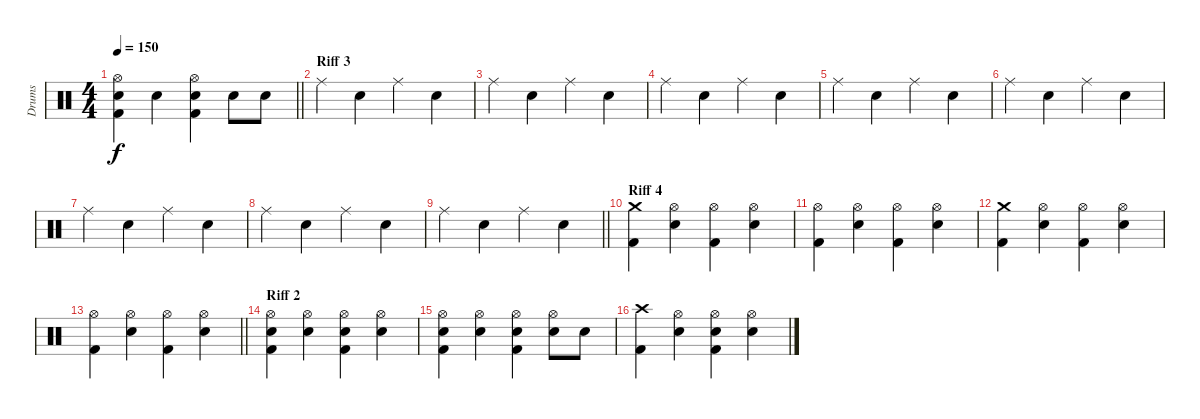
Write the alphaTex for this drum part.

\track ("Drums" "Drums") {instrument percussion}
\staff
\articulation defaults
\ts (4 4)
\tempo 150
\clef neutral
\barLineRight lightlight
\ks c
("Hi-Hat (open)" "Snare (hit) 2" "Kick (hit) 2").4{dy f} "Snare (hit) 2".4 ("Hi-Hat (open)" "Snare (hit) 2" "Kick (hit) 2").4 "Snare (hit) 2".8 "Snare (hit) 2".8 |
\section ("" "Riff 3")
"Ride (middle)".4 "Snare (hit) 2".4 "Ride (middle)".4 "Snare (hit) 2".4 |
"Ride (middle)".4 "Snare (hit) 2".4 "Ride (middle)".4 "Snare (hit) 2".4 |
"Ride (middle)".4 "Snare (hit) 2".4 "Ride (middle)".4 "Snare (hit) 2".4 |
"Ride (middle)".4 "Snare (hit) 2".4 "Ride (middle)".4 "Snare (hit) 2".4 |
"Ride (middle)".4 "Snare (hit) 2".4 "Ride (middle)".4 "Snare (hit) 2".4 |
"Ride (middle)".4 "Snare (hit) 2".4 "Ride (middle)".4 "Snare (hit) 2".4 |
"Ride (middle)".4 "Snare (hit) 2".4 "Ride (middle)".4 "Snare (hit) 2".4 |
\barLineRight lightlight "Ride (middle)".4 "Snare (hit) 2".4 "Ride (middle)".4 "Snare (hit) 2".4
|
\section ("" "Riff 4")
("Crash medium (hit)" "Kick (hit) 2").4 ("Hi-Hat (open)" "Snare (hit) 2").4 ("Hi-Hat (open)" "Kick (hit) 2").4 ("Hi-Hat (open)" "Snare (hit) 2").4 |
("Hi-Hat (open)" "Kick (hit) 2").4 ("Hi-Hat (open)" "Snare (hit) 2").4 ("Hi-Hat (open)" "Kick (hit) 2").4 ("Hi-Hat (open)" "Snare (hit) 2").4 |
("Crash medium (hit)" "Kick (hit) 2").4 ("Hi-Hat (open)" "Snare (hit) 2").4 ("Hi-Hat (open)" "Kick (hit) 2").4 ("Hi-Hat (open)" "Snare (hit) 2").4 |
\barLineRight lightlight
("Hi-Hat (open)" "Kick (hit) 2").4 ("Hi-Hat (open)" "Snare (hit) 2").4 ("Hi-Hat (open)" "Kick (hit) 2").4 ("Hi-Hat (open)" "Snare (hit) 2").4 |
\section ("" "Riff 2")
("Hi-Hat (open)" "Snare (hit) 2" "Kick (hit) 2").4 ("Hi-Hat (open)" "Snare (hit) 2").4 ("Hi-Hat (open)" "Snare (hit) 2" "Kick (hit) 2").4 ("Hi-Hat (open)" "Snare (hit) 2").4 |
("Hi-Hat (open)" "Snare (hit) 2" "Kick (hit) 2").4 ("Hi-Hat (open)" "Snare (hit) 2").4 ("Hi-Hat (open)" "Snare (hit) 2" "Kick (hit) 2").4 ("Hi-Hat (open)" "Snare (hit) 2").8 "Snare (hit) 2".8 |
("Crash high (hit)" "Kick (hit) 2").4 ("Hi-Hat (open)" "Snare (hit) 2").4 ("Hi-Hat (open)" "Snare (hit) 2" "Kick (hit) 2").4 ("Hi-Hat (open)" "Snare (hit) 2").4
